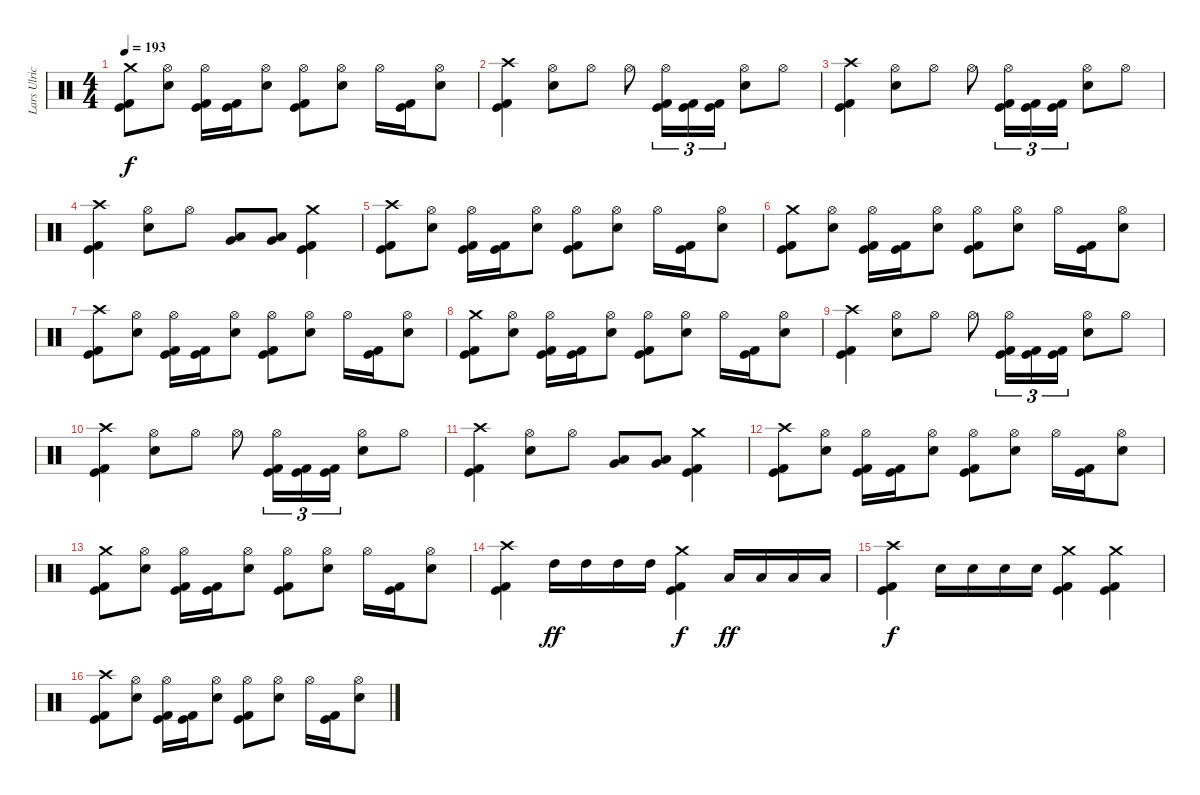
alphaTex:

\track ("Lars Ulrich" "Lars Ulric") {instrument percussion}
\staff {score}
\articulation defaults
\ts (4 4)
\tempo 193
\clef neutral
\ks c
("Crash medium (hit)" "Kick (hit) 2" "Kick (hit)").8{dy f} ("Hi-Hat (open)" "Electric Snare (hit)").8 ("Hi-Hat (open)" "Kick (hit) 2" "Kick (hit)").16 ("Kick (hit) 2" "Kick (hit)").16 ("Hi-Hat (open)" "Electric Snare (hit)").8 ("Hi-Hat (open)" "Kick (hit) 2" "Kick (hit)").8 ("Hi-Hat (open)" "Electric Snare (hit)").8 "Hi-Hat (open)".16 ("Kick (hit) 2" "Kick (hit)").16 ("Hi-Hat (open)" "Electric Snare (hit)").8 |
("Crash high (hit)" "Kick (hit) 2" "Kick (hit)").4 ("Hi-Hat (open)" "Electric Snare (hit)").8 "Hi-Hat (open)".8 "Hi-Hat (open)".8 ("Hi-Hat (open)" "Kick (hit) 2" "Kick (hit)").16{tu (3 2)} ("Kick (hit) 2" "Kick (hit)").16{tu (3 2)} ("Kick (hit) 2" "Kick (hit)").16{tu (3 2)} ("Hi-Hat (open)" "Electric Snare (hit)").8 "Hi-Hat (open)".8 |
("Crash high (hit)" "Kick (hit) 2" "Kick (hit)").4 ("Hi-Hat (open)" "Electric Snare (hit)").8 "Hi-Hat (open)".8 "Hi-Hat (open)".8 ("Hi-Hat (open)" "Kick (hit) 2" "Kick (hit)").16{tu (3 2)} ("Kick (hit) 2" "Kick (hit)").16{tu (3 2)} ("Kick (hit) 2" "Kick (hit)").16{tu (3 2)} ("Hi-Hat (open)" "Electric Snare (hit)").8 "Hi-Hat (open)".8 |
("Crash high (hit)" "Kick (hit) 2" "Kick (hit)").4 ("Hi-Hat (open)" "Electric Snare (hit)").8 "Hi-Hat (open)".8 ("Low Tom (hit)" "Very Low Tom (hit)").8 ("Low Tom (hit)" "Very Low Tom (hit)").8 ("Crash medium (hit)" "Kick (hit) 2" "Kick (hit)").4 |
("Crash high (hit)" "Kick (hit) 2" "Kick (hit)").8 ("Hi-Hat (open)" "Electric Snare (hit)").8 ("Hi-Hat (open)" "Kick (hit) 2" "Kick (hit)").16 ("Kick (hit) 2" "Kick (hit)").16 ("Hi-Hat (open)" "Electric Snare (hit)").8 ("Hi-Hat (open)" "Kick (hit) 2" "Kick (hit)").8 ("Hi-Hat (open)" "Electric Snare (hit)").8 "Hi-Hat (open)".16 ("Kick (hit) 2" "Kick (hit)").16 ("Hi-Hat (open)" "Electric Snare (hit)").8 |
("Crash medium (hit)" "Kick (hit) 2" "Kick (hit)").8 ("Hi-Hat (open)" "Electric Snare (hit)").8 ("Hi-Hat (open)" "Kick (hit) 2" "Kick (hit)").16 ("Kick (hit) 2" "Kick (hit)").16 ("Hi-Hat (open)" "Electric Snare (hit)").8 ("Hi-Hat (open)" "Kick (hit) 2" "Kick (hit)").8 ("Hi-Hat (open)" "Electric Snare (hit)").8 "Hi-Hat (open)".16 ("Kick (hit) 2" "Kick (hit)").16 ("Hi-Hat (open)" "Electric Snare (hit)").8 |
("Crash high (hit)" "Kick (hit) 2" "Kick (hit)").8 ("Hi-Hat (open)" "Electric Snare (hit)").8 ("Hi-Hat (open)" "Kick (hit) 2" "Kick (hit)").16 ("Kick (hit) 2" "Kick (hit)").16 ("Hi-Hat (open)" "Electric Snare (hit)").8 ("Hi-Hat (open)" "Kick (hit) 2" "Kick (hit)").8 ("Hi-Hat (open)" "Electric Snare (hit)").8 "Hi-Hat (open)".16 ("Kick (hit) 2" "Kick (hit)").16 ("Hi-Hat (open)" "Electric Snare (hit)").8 |
("Crash medium (hit)" "Kick (hit) 2" "Kick (hit)").8 ("Hi-Hat (open)" "Electric Snare (hit)").8 ("Hi-Hat (open)" "Kick (hit) 2" "Kick (hit)").16 ("Kick (hit) 2" "Kick (hit)").16 ("Hi-Hat (open)" "Electric Snare (hit)").8 ("Hi-Hat (open)" "Kick (hit) 2" "Kick (hit)").8 ("Hi-Hat (open)" "Electric Snare (hit)").8 "Hi-Hat (open)".16 ("Kick (hit) 2" "Kick (hit)").16 ("Hi-Hat (open)" "Electric Snare (hit)").8 |
("Crash high (hit)" "Kick (hit) 2" "Kick (hit)").4 ("Hi-Hat (open)" "Electric Snare (hit)").8 "Hi-Hat (open)".8 "Hi-Hat (open)".8 ("Hi-Hat (open)" "Kick (hit) 2" "Kick (hit)").16{tu (3 2)} ("Kick (hit) 2" "Kick (hit)").16{tu (3 2)} ("Kick (hit) 2" "Kick (hit)").16{tu (3 2)} ("Hi-Hat (open)" "Electric Snare (hit)").8 "Hi-Hat (open)".8 |
("Crash high (hit)" "Kick (hit) 2" "Kick (hit)").4 ("Hi-Hat (open)" "Electric Snare (hit)").8 "Hi-Hat (open)".8 "Hi-Hat (open)".8 ("Hi-Hat (open)" "Kick (hit) 2" "Kick (hit)").16{tu (3 2)} ("Kick (hit) 2" "Kick (hit)").16{tu (3 2)} ("Kick (hit) 2" "Kick (hit)").16{tu (3 2)} ("Hi-Hat (open)" "Electric Snare (hit)").8 "Hi-Hat (open)".8 |
("Crash high (hit)" "Kick (hit) 2" "Kick (hit)").4 ("Hi-Hat (open)" "Electric Snare (hit)").8 "Hi-Hat (open)".8 ("Low Tom (hit)" "Very Low Tom (hit)").8 ("Low Tom (hit)" "Very Low Tom (hit)").8 ("Crash medium (hit)" "Kick (hit) 2" "Kick (hit)").4 |
("Crash high (hit)" "Kick (hit) 2" "Kick (hit)").8 ("Hi-Hat (open)" "Electric Snare (hit)").8 ("Hi-Hat (open)" "Kick (hit) 2" "Kick (hit)").16 ("Kick (hit) 2" "Kick (hit)").16 ("Hi-Hat (open)" "Electric Snare (hit)").8 ("Hi-Hat (open)" "Kick (hit) 2" "Kick (hit)").8 ("Hi-Hat (open)" "Electric Snare (hit)").8 "Hi-Hat (open)".16 ("Kick (hit) 2" "Kick (hit)").16 ("Hi-Hat (open)" "Electric Snare (hit)").8 |
("Crash medium (hit)" "Kick (hit) 2" "Kick (hit)").8 ("Hi-Hat (open)" "Electric Snare (hit)").8 ("Hi-Hat (open)" "Kick (hit) 2" "Kick (hit)").16 ("Kick (hit) 2" "Kick (hit)").16 ("Hi-Hat (open)" "Electric Snare (hit)").8 ("Hi-Hat (open)" "Kick (hit) 2" "Kick (hit)").8 ("Hi-Hat (open)" "Electric Snare (hit)").8 "Hi-Hat (open)".16 ("Kick (hit) 2" "Kick (hit)").16 ("Hi-Hat (open)" "Electric Snare (hit)").8 |
("Crash high (hit)" "Kick (hit) 2" "Kick (hit)").4 "High Tom (hit)".16{dy ff} "High Tom (hit)".16 "High Tom (hit)".16 "High Tom (hit)".16 ("Crash medium (hit)" "Kick (hit) 2" "Kick (hit)").4{dy f} "Low Tom (hit)".16{dy ff} "Low Tom (hit)".16 "Low Tom (hit)".16 "Low Tom (hit)".16 |
("Crash high (hit)" "Kick (hit) 2" "Kick (hit)").4{dy f} "Electric Snare (hit)".16 "Electric Snare (hit)".16 "Electric Snare (hit)".16 "Electric Snare (hit)".16 ("Crash medium (hit)" "Kick (hit) 2" "Kick (hit)").4 ("Crash medium (hit)" "Kick (hit) 2" "Kick (hit)").4 |
("Crash high (hit)" "Kick (hit) 2" "Kick (hit)").8 ("Hi-Hat (open)" "Electric Snare (hit)").8 ("Hi-Hat (open)" "Kick (hit) 2" "Kick (hit)").16 ("Kick (hit) 2" "Kick (hit)").16 ("Hi-Hat (open)" "Electric Snare (hit)").8 ("Hi-Hat (open)" "Kick (hit) 2" "Kick (hit)").8 ("Hi-Hat (open)" "Electric Snare (hit)").8 "Hi-Hat (open)".16 ("Kick (hit) 2" "Kick (hit)").16 ("Hi-Hat (open)" "Electric Snare (hit)").8
